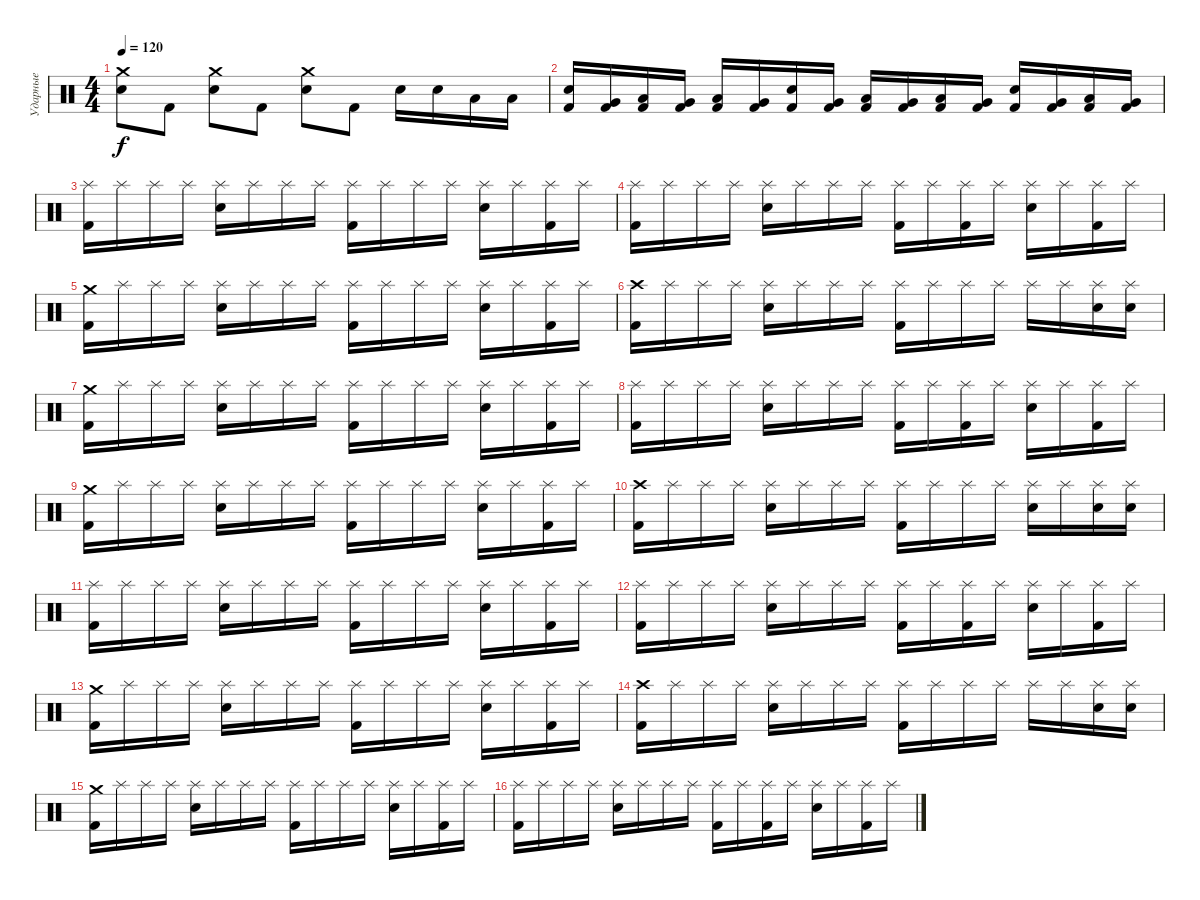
\track ("Ударные" "Ударные") {instrument percussion}
\staff {score}
\articulation defaults
\ts (4 4)
\tempo 120
\clef neutral
\ks c
("Crash medium (hit)" "Electric Snare (hit)").8{dy f} "Kick (hit) 2".8 ("Crash medium (hit)" "Electric Snare (hit)").8 "Kick (hit) 2".8 ("Crash medium (hit)" "Electric Snare (hit)").8 "Kick (hit) 2".8 "Electric Snare (hit)".16 "Electric Snare (hit)".16 "Low Tom (hit)".16 "Low Tom (hit)".16 |
("Electric Snare (hit)" "Kick (hit) 2").16 ("Very Low Tom (hit)" "Kick (hit) 2").16 ("Low Tom (hit)" "Kick (hit) 2").16 ("Very Low Tom (hit)" "Kick (hit) 2").16 ("Low Tom (hit)" "Kick (hit) 2").16 ("Very Low Tom (hit)" "Kick (hit) 2").16 ("Electric Snare (hit)" "Kick (hit) 2").16 ("Very Low Tom (hit)" "Kick (hit) 2").16 ("Low Tom (hit)" "Kick (hit) 2").16 ("Very Low Tom (hit)" "Kick (hit) 2").16 ("Low Tom (hit)" "Kick (hit) 2").16 ("Very Low Tom (hit)" "Kick (hit) 2").16 ("Electric Snare (hit)" "Kick (hit) 2").16 ("Very Low Tom (hit)" "Kick (hit) 2").16 ("Low Tom (hit)" "Kick (hit) 2").16 ("Very Low Tom (hit)" "Kick (hit) 2").16 |
("Splash (hit)" "Kick (hit) 2").16 "Splash (hit)".16 "Splash (hit)".16 "Splash (hit)".16 ("Splash (hit)" "Electric Snare (hit)").16 "Splash (hit)".16 "Splash (hit)".16 "Splash (hit)".16 ("Splash (hit)" "Kick (hit) 2").16 "Splash (hit)".16 "Splash (hit)".16 "Splash (hit)".16 ("Splash (hit)" "Electric Snare (hit)").16 "Splash (hit)".16 ("Splash (hit)" "Kick (hit) 2").16 "Splash (hit)".16 |
("Splash (hit)" "Kick (hit) 2").16 "Splash (hit)".16 "Splash (hit)".16 "Splash (hit)".16 ("Splash (hit)" "Electric Snare (hit)").16 "Splash (hit)".16 "Splash (hit)".16 "Splash (hit)".16 ("Splash (hit)" "Kick (hit) 2").16 "Splash (hit)".16 ("Splash (hit)" "Kick (hit) 2").16 "Splash (hit)".16 ("Splash (hit)" "Electric Snare (hit)").16 "Splash (hit)".16 ("Splash (hit)" "Kick (hit) 2").16 "Splash (hit)".16 |
("Crash medium (hit)" "Kick (hit) 2").16 "Splash (hit)".16 "Splash (hit)".16 "Splash (hit)".16 ("Splash (hit)" "Electric Snare (hit)").16 "Splash (hit)".16 "Splash (hit)".16 "Splash (hit)".16 ("Splash (hit)" "Kick (hit) 2").16 "Splash (hit)".16 "Splash (hit)".16 "Splash (hit)".16 ("Splash (hit)" "Electric Snare (hit)").16 "Splash (hit)".16 ("Splash (hit)" "Kick (hit) 2").16 "Splash (hit)".16 |
("Crash high (hit)" "Kick (hit) 2").16 "Splash (hit)".16 "Splash (hit)".16 "Splash (hit)".16 ("Splash (hit)" "Electric Snare (hit)").16 "Splash (hit)".16 "Splash (hit)".16 "Splash (hit)".16 ("Splash (hit)" "Kick (hit) 2").16 "Splash (hit)".16 "Splash (hit)".16 "Splash (hit)".16 "Splash (hit)".16 "Splash (hit)".16 ("Splash (hit)" "Electric Snare (hit)").16 ("Splash (hit)" "Electric Snare (hit)").16 |
("Crash medium (hit)" "Kick (hit) 2").16 "Splash (hit)".16 "Splash (hit)".16 "Splash (hit)".16 ("Splash (hit)" "Electric Snare (hit)").16 "Splash (hit)".16 "Splash (hit)".16 "Splash (hit)".16 ("Splash (hit)" "Kick (hit) 2").16 "Splash (hit)".16 "Splash (hit)".16 "Splash (hit)".16 ("Splash (hit)" "Electric Snare (hit)").16 "Splash (hit)".16 ("Splash (hit)" "Kick (hit) 2").16 "Splash (hit)".16 |
("Splash (hit)" "Kick (hit) 2").16 "Splash (hit)".16 "Splash (hit)".16 "Splash (hit)".16 ("Splash (hit)" "Electric Snare (hit)").16 "Splash (hit)".16 "Splash (hit)".16 "Splash (hit)".16 ("Splash (hit)" "Kick (hit) 2").16 "Splash (hit)".16 ("Splash (hit)" "Kick (hit) 2").16 "Splash (hit)".16 ("Splash (hit)" "Electric Snare (hit)").16 "Splash (hit)".16 ("Splash (hit)" "Kick (hit) 2").16 "Splash (hit)".16 |
("Crash medium (hit)" "Kick (hit) 2").16 "Splash (hit)".16 "Splash (hit)".16 "Splash (hit)".16 ("Splash (hit)" "Electric Snare (hit)").16 "Splash (hit)".16 "Splash (hit)".16 "Splash (hit)".16 ("Splash (hit)" "Kick (hit) 2").16 "Splash (hit)".16 "Splash (hit)".16 "Splash (hit)".16 ("Splash (hit)" "Electric Snare (hit)").16 "Splash (hit)".16 ("Splash (hit)" "Kick (hit) 2").16 "Splash (hit)".16 |
("Crash high (hit)" "Kick (hit) 2").16 "Splash (hit)".16 "Splash (hit)".16 "Splash (hit)".16 ("Splash (hit)" "Electric Snare (hit)").16 "Splash (hit)".16 "Splash (hit)".16 "Splash (hit)".16 ("Splash (hit)" "Kick (hit) 2").16 "Splash (hit)".16 "Splash (hit)".16 "Splash (hit)".16 ("Splash (hit)" "Electric Snare (hit)").16 "Splash (hit)".16 ("Splash (hit)" "Electric Snare (hit)").16 ("Splash (hit)" "Electric Snare (hit)").16 |
("Splash (hit)" "Kick (hit) 2").16 "Splash (hit)".16 "Splash (hit)".16 "Splash (hit)".16 ("Splash (hit)" "Electric Snare (hit)").16 "Splash (hit)".16 "Splash (hit)".16 "Splash (hit)".16 ("Splash (hit)" "Kick (hit) 2").16 "Splash (hit)".16 "Splash (hit)".16 "Splash (hit)".16 ("Splash (hit)" "Electric Snare (hit)").16 "Splash (hit)".16 ("Splash (hit)" "Kick (hit) 2").16 "Splash (hit)".16 |
("Splash (hit)" "Kick (hit) 2").16 "Splash (hit)".16 "Splash (hit)".16 "Splash (hit)".16 ("Splash (hit)" "Electric Snare (hit)").16 "Splash (hit)".16 "Splash (hit)".16 "Splash (hit)".16 ("Splash (hit)" "Kick (hit) 2").16 "Splash (hit)".16 ("Splash (hit)" "Kick (hit) 2").16 "Splash (hit)".16 ("Splash (hit)" "Electric Snare (hit)").16 "Splash (hit)".16 ("Splash (hit)" "Kick (hit) 2").16 "Splash (hit)".16 |
("Crash medium (hit)" "Kick (hit) 2").16 "Splash (hit)".16 "Splash (hit)".16 "Splash (hit)".16 ("Splash (hit)" "Electric Snare (hit)").16 "Splash (hit)".16 "Splash (hit)".16 "Splash (hit)".16 ("Splash (hit)" "Kick (hit) 2").16 "Splash (hit)".16 "Splash (hit)".16 "Splash (hit)".16 ("Splash (hit)" "Electric Snare (hit)").16 "Splash (hit)".16 ("Splash (hit)" "Kick (hit) 2").16 "Splash (hit)".16 |
("Crash high (hit)" "Kick (hit) 2").16 "Splash (hit)".16 "Splash (hit)".16 "Splash (hit)".16 ("Splash (hit)" "Electric Snare (hit)").16 "Splash (hit)".16 "Splash (hit)".16 "Splash (hit)".16 ("Splash (hit)" "Kick (hit) 2").16 "Splash (hit)".16 "Splash (hit)".16 "Splash (hit)".16 "Splash (hit)".16 "Splash (hit)".16 ("Splash (hit)" "Electric Snare (hit)").16 ("Splash (hit)" "Electric Snare (hit)").16 |
("Crash medium (hit)" "Kick (hit) 2").16 "Splash (hit)".16 "Splash (hit)".16 "Splash (hit)".16 ("Splash (hit)" "Electric Snare (hit)").16 "Splash (hit)".16 "Splash (hit)".16 "Splash (hit)".16 ("Splash (hit)" "Kick (hit) 2").16 "Splash (hit)".16 "Splash (hit)".16 "Splash (hit)".16 ("Splash (hit)" "Electric Snare (hit)").16 "Splash (hit)".16 ("Splash (hit)" "Kick (hit) 2").16 "Splash (hit)".16 |
("Splash (hit)" "Kick (hit) 2").16 "Splash (hit)".16 "Splash (hit)".16 "Splash (hit)".16 ("Splash (hit)" "Electric Snare (hit)").16 "Splash (hit)".16 "Splash (hit)".16 "Splash (hit)".16 ("Splash (hit)" "Kick (hit) 2").16 "Splash (hit)".16 ("Splash (hit)" "Kick (hit) 2").16 "Splash (hit)".16 ("Splash (hit)" "Electric Snare (hit)").16 "Splash (hit)".16 ("Splash (hit)" "Kick (hit) 2").16 "Splash (hit)".16
